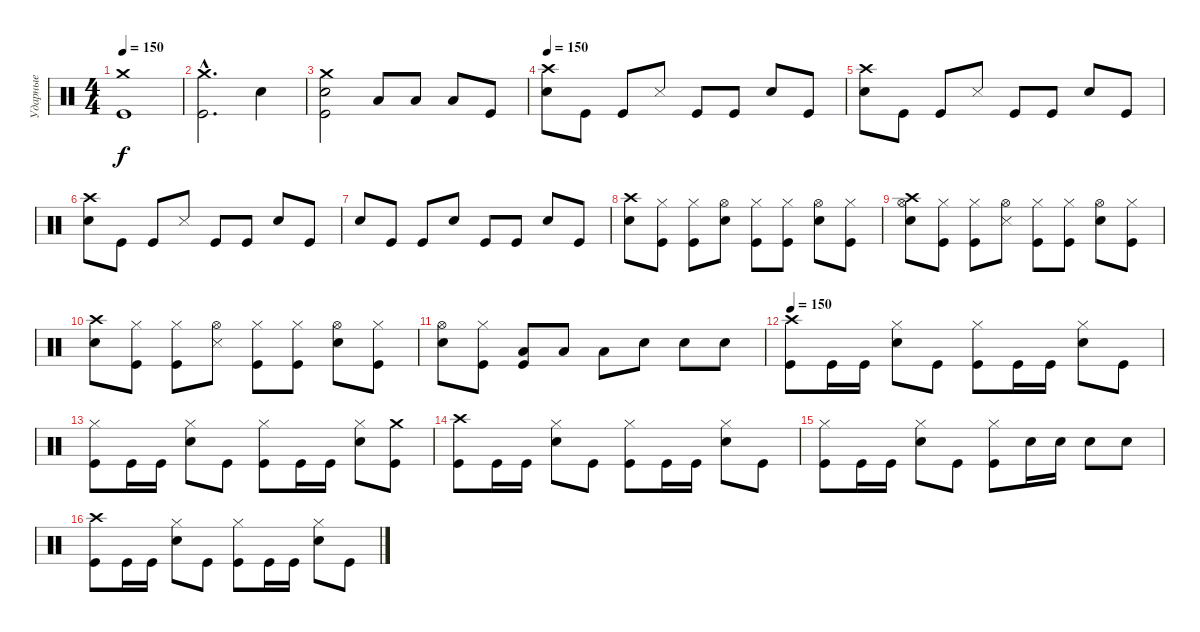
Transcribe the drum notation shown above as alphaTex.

\track ("Ударные" "Ударные") {instrument percussion}
\staff {score}
\articulation defaults
\ts (4 4)
\tempo 150
\clef neutral
\ks c
("Crash medium (hit)" "Kick (hit)").1{dy f} |
("Crash medium (hit)"{hac} "Kick (hit)"{hac}).2{d} "Electric Snare (hit)".4 |
("Crash medium (hit)" "Electric Snare (hit)" "Kick (hit)").2 "Low Tom (hit)".8 "Low Tom (hit)".8 "Low Tom (hit)".8 "Kick (hit)".8 |
\tempo 150
("Crash high (hit)" "Electric Snare (hit)").8 "Kick (hit)".8 "Kick (hit)".8 "Snare (side stick) 3".8 "Kick (hit)".8 "Kick (hit)".8 "Electric Snare (hit)".8 "Kick (hit)".8 |
("Crash high (hit)" "Electric Snare (hit)").8 "Kick (hit)".8 "Kick (hit)".8 "Snare (side stick) 3".8 "Kick (hit)".8 "Kick (hit)".8 "Electric Snare (hit)".8 "Kick (hit)".8 |
("Crash high (hit)" "Electric Snare (hit)").8 "Kick (hit)".8 "Kick (hit)".8 "Snare (side stick) 3".8 "Kick (hit)".8 "Kick (hit)".8 "Electric Snare (hit)".8 "Kick (hit)".8 |
"Electric Snare (hit)".8 "Kick (hit)".8 "Kick (hit)".8 "Electric Snare (hit)".8 "Kick (hit)".8 "Kick (hit)".8 "Electric Snare (hit)".8 "Kick (hit)".8 |
("Crash high (hit)" "Electric Snare (hit)").8 ("Hi-Hat (closed)" "Kick (hit)").8 ("Hi-Hat (closed)" "Kick (hit)").8 ("Hi-Hat (open)" "Electric Snare (hit)").8 ("Hi-Hat (closed)" "Kick (hit)").8 ("Hi-Hat (closed)" "Kick (hit)").8 ("Hi-Hat (open)" "Electric Snare (hit)").8 ("Hi-Hat (closed)" "Kick (hit)").8 |
("Crash high (hit)" "Hi-Hat (open)" "Electric Snare (hit)").8 ("Hi-Hat (closed)" "Kick (hit)").8 ("Hi-Hat (closed)" "Kick (hit)").8 ("Hi-Hat (open)" "Snare (side stick) 3").8 ("Hi-Hat (closed)" "Kick (hit)").8 ("Hi-Hat (closed)" "Kick (hit)").8 ("Hi-Hat (open)" "Electric Snare (hit)").8 ("Hi-Hat (closed)" "Kick (hit)").8 |
("Crash high (hit)" "Electric Snare (hit)").8 ("Hi-Hat (closed)" "Kick (hit)").8 ("Hi-Hat (closed)" "Kick (hit)").8 ("Hi-Hat (open)" "Snare (side stick) 3").8 ("Hi-Hat (closed)" "Kick (hit)").8 ("Hi-Hat (closed)" "Kick (hit)").8 ("Hi-Hat (open)" "Electric Snare (hit)").8 ("Hi-Hat (closed)" "Kick (hit)").8 |
("Hi-Hat (open)" "Electric Snare (hit)").8 ("Hi-Hat (closed)" "Kick (hit)").8 ("Low Tom (hit)" "Kick (hit)").8 "Low Tom (hit)".8 "Low Tom (hit)".8 "Electric Snare (hit)".8 "Electric Snare (hit)".8 "Electric Snare (hit)".8 |
\tempo 150
("Crash high (hit)" "Kick (hit)").8 "Kick (hit)".16 "Kick (hit)".16 ("Hi-Hat (closed)" "Electric Snare (hit)").8 "Kick (hit)".8 ("Hi-Hat (closed)" "Kick (hit)").8 "Kick (hit)".16 "Kick (hit)".16 ("Hi-Hat (closed)" "Electric Snare (hit)").8 "Kick (hit)".8 |
("Hi-Hat (closed)" "Kick (hit)").8 "Kick (hit)".16 "Kick (hit)".16 ("Hi-Hat (closed)" "Electric Snare (hit)").8 "Kick (hit)".8 ("Hi-Hat (closed)" "Kick (hit)").8 "Kick (hit)".16 "Kick (hit)".16 ("Hi-Hat (closed)" "Electric Snare (hit)").8 ("Crash medium (hit)" "Kick (hit)").8 |
("Crash high (hit)" "Kick (hit)").8 "Kick (hit)".16 "Kick (hit)".16 ("Hi-Hat (closed)" "Electric Snare (hit)").8 "Kick (hit)".8 ("Hi-Hat (closed)" "Kick (hit)").8 "Kick (hit)".16 "Kick (hit)".16 ("Hi-Hat (closed)" "Electric Snare (hit)").8 "Kick (hit)".8 |
("Hi-Hat (closed)" "Kick (hit)").8 "Kick (hit)".16 "Kick (hit)".16 ("Hi-Hat (closed)" "Electric Snare (hit)").8 "Kick (hit)".8 ("Hi-Hat (closed)" "Kick (hit)").8 "Electric Snare (hit)".16 "Electric Snare (hit)".16 "Electric Snare (hit)".8 "Electric Snare (hit)".8 |
("Crash high (hit)" "Kick (hit)").8 "Kick (hit)".16 "Kick (hit)".16 ("Hi-Hat (closed)" "Electric Snare (hit)").8 "Kick (hit)".8 ("Hi-Hat (closed)" "Kick (hit)").8 "Kick (hit)".16 "Kick (hit)".16 ("Hi-Hat (closed)" "Electric Snare (hit)").8 "Kick (hit)".8
